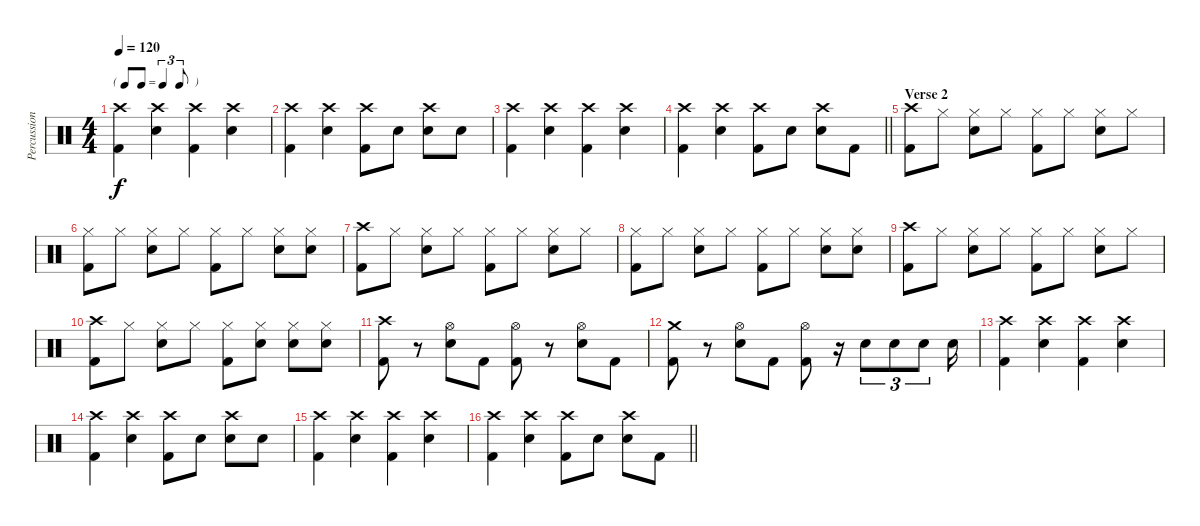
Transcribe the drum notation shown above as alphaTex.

\track ("Percussion" "Percussion") {instrument percussion}
\staff {score}
\articulation defaults
\ts (4 4)
\tf triplet8th
\tempo 120
\clef neutral
\ks c
("Crash high (hit)" "Kick (hit) 2").4{dy f} ("Crash high (hit)" "Snare (hit) 2").4 ("Crash high (hit)" "Kick (hit) 2").4 ("Crash high (hit)" "Snare (hit) 2").4 |
("Crash high (hit)" "Kick (hit) 2").4 ("Crash high (hit)" "Snare (hit) 2").4 ("Crash high (hit)" "Kick (hit) 2").8 "Snare (hit) 2".8 ("Crash high (hit)" "Snare (hit) 2").8 "Snare (hit) 2".8 |
("Crash high (hit)" "Kick (hit) 2").4 ("Crash high (hit)" "Snare (hit) 2").4 ("Crash high (hit)" "Kick (hit) 2").4 ("Crash high (hit)" "Snare (hit) 2").4 |
\barLineRight lightlight
("Crash high (hit)" "Kick (hit) 2").4 ("Crash high (hit)" "Snare (hit) 2").4 ("Crash high (hit)" "Kick (hit) 2").8 "Snare (hit) 2".8 ("Crash high (hit)" "Snare (hit) 2").8 "Kick (hit) 2".8 |
\section ("" "Verse 2")
("Crash high (hit)" "Kick (hit) 2").8 "Hi-Hat (closed)".8 ("Hi-Hat (closed)" "Snare (hit) 2").8 "Hi-Hat (closed)".8 ("Hi-Hat (closed)" "Kick (hit) 2").8 "Hi-Hat (closed)".8 ("Hi-Hat (closed)" "Snare (hit) 2").8 "Hi-Hat (closed)".8 |
("Hi-Hat (closed)" "Kick (hit) 2").8 "Hi-Hat (closed)".8 ("Hi-Hat (closed)" "Snare (hit) 2").8 "Hi-Hat (closed)".8 ("Hi-Hat (closed)" "Kick (hit) 2").8 "Hi-Hat (closed)".8 ("Hi-Hat (closed)" "Snare (hit) 2").8 ("Hi-Hat (closed)" "Snare (hit) 2").8 |
("Crash high (hit)" "Kick (hit) 2").8 "Hi-Hat (closed)".8 ("Hi-Hat (closed)" "Snare (hit) 2").8 "Hi-Hat (closed)".8 ("Hi-Hat (closed)" "Kick (hit) 2").8 "Hi-Hat (closed)".8 ("Hi-Hat (closed)" "Snare (hit) 2").8 "Hi-Hat (closed)".8 |
("Hi-Hat (closed)" "Kick (hit) 2").8 "Hi-Hat (closed)".8 ("Hi-Hat (closed)" "Snare (hit) 2").8 "Hi-Hat (closed)".8 ("Hi-Hat (closed)" "Kick (hit) 2").8 "Hi-Hat (closed)".8 ("Hi-Hat (closed)" "Snare (hit) 2").8 ("Hi-Hat (closed)" "Snare (hit) 2").8 |
("Crash high (hit)" "Kick (hit) 2").8 "Hi-Hat (closed)".8 ("Hi-Hat (closed)" "Snare (hit) 2").8 "Hi-Hat (closed)".8 ("Hi-Hat (closed)" "Kick (hit) 2").8 "Hi-Hat (closed)".8 ("Hi-Hat (closed)" "Snare (hit) 2").8 "Hi-Hat (closed)".8 |
("Crash high (hit)" "Kick (hit) 2").8 "Hi-Hat (closed)".8 ("Hi-Hat (closed)" "Snare (hit) 2").8 "Hi-Hat (closed)".8 ("Hi-Hat (closed)" "Kick (hit) 2").8 ("Hi-Hat (closed)" "Snare (hit) 2").8 ("Hi-Hat (closed)" "Snare (hit) 2").8 ("Hi-Hat (closed)" "Snare (hit) 2").8 |
("Crash high (hit)" "Kick (hit) 2").8 r.8 ("Hi-Hat (open)" "Snare (hit) 2").8 "Kick (hit) 2".8 ("Hi-Hat (open)" "Kick (hit) 2").8 r.8 ("Hi-Hat (open)" "Snare (hit) 2").8 "Kick (hit) 2".8 |
("Crash medium (hit)" "Kick (hit) 2").8 r.8 ("Hi-Hat (open)" "Snare (hit) 2").8 "Kick (hit) 2".8 ("Hi-Hat (open)" "Kick (hit) 2").8 r.16 "Snare (hit) 2".8{tu (3 2)} "Snare (hit) 2".8{tu (3 2)} "Snare (hit) 2".8{tu (3 2)} "Snare (hit) 2".16 |
("Crash high (hit)" "Kick (hit) 2").4 ("Crash high (hit)" "Snare (hit) 2").4 ("Crash high (hit)" "Kick (hit) 2").4 ("Crash high (hit)" "Snare (hit) 2").4 |
("Crash high (hit)" "Kick (hit) 2").4 ("Crash high (hit)" "Snare (hit) 2").4 ("Crash high (hit)" "Kick (hit) 2").8 "Snare (hit) 2".8 ("Crash high (hit)" "Snare (hit) 2").8 "Snare (hit) 2".8 |
("Crash high (hit)" "Kick (hit) 2").4 ("Crash high (hit)" "Snare (hit) 2").4 ("Crash high (hit)" "Kick (hit) 2").4 ("Crash high (hit)" "Snare (hit) 2").4 |
\barLineRight lightlight
("Crash high (hit)" "Kick (hit) 2").4 ("Crash high (hit)" "Snare (hit) 2").4 ("Crash high (hit)" "Kick (hit) 2").8 "Snare (hit) 2".8 ("Crash high (hit)" "Snare (hit) 2").8 "Kick (hit) 2".8
